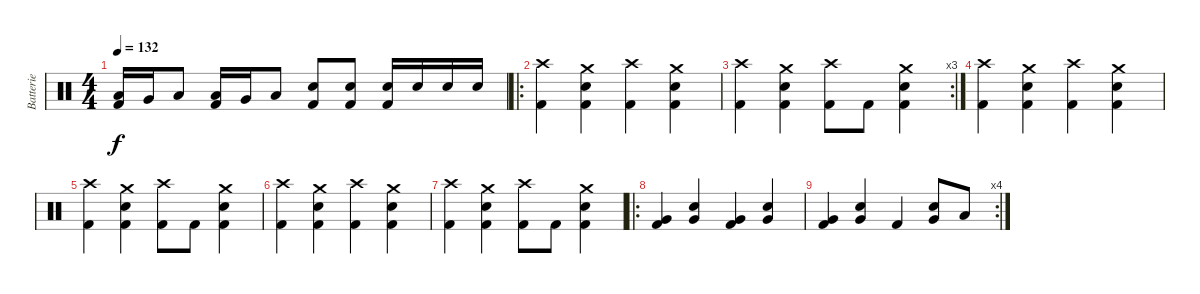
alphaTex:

\track ("Batterie" "Batterie") {instrument percussion}
\staff {score}
\articulation defaults
\ts (4 4)
\tempo 132
\clef neutral
\ks c
("Low Tom (hit)" "Kick (hit) 2").16{dy f} "Very Low Tom (hit)".16 "Low Floor Tom (hit)".8 ("Low Tom (hit)" "Kick (hit) 2").16 "Very Low Tom (hit)".16 "Low Floor Tom (hit)".8 ("Electric Snare (hit)" "Kick (hit) 2").8 ("Electric Snare (hit)" "Kick (hit) 2").8 ("Electric Snare (hit)" "Kick (hit) 2").16 "Electric Snare (hit)".16 "Electric Snare (hit)".16 "Electric Snare (hit)".16 |
\ro
("Crash high (hit)" "Kick (hit) 2").4 ("Crash medium (hit)" "Electric Snare (hit)" "Kick (hit) 2").4 ("Crash high (hit)" "Kick (hit) 2").4 ("Crash medium (hit)" "Electric Snare (hit)" "Kick (hit) 2").4 |
\rc 3
("Crash high (hit)" "Kick (hit) 2").4 ("Crash medium (hit)" "Electric Snare (hit)" "Kick (hit) 2").4 ("Crash high (hit)" "Kick (hit) 2").8 "Kick (hit) 2".8 ("Crash medium (hit)" "Electric Snare (hit)" "Kick (hit) 2").4 |
("Crash high (hit)" "Kick (hit) 2").4 ("Crash medium (hit)" "Electric Snare (hit)" "Kick (hit) 2").4 ("Crash high (hit)" "Kick (hit) 2").4 ("Crash medium (hit)" "Electric Snare (hit)" "Kick (hit) 2").4 |
("Crash high (hit)" "Kick (hit) 2").4 ("Crash medium (hit)" "Electric Snare (hit)" "Kick (hit) 2").4 ("Crash high (hit)" "Kick (hit) 2").8 "Kick (hit) 2".8 ("Crash medium (hit)" "Electric Snare (hit)" "Kick (hit) 2").4 |
("Crash high (hit)" "Kick (hit) 2").4 ("Crash medium (hit)" "Electric Snare (hit)" "Kick (hit) 2").4 ("Crash high (hit)" "Kick (hit) 2").4 ("Crash medium (hit)" "Electric Snare (hit)" "Kick (hit) 2").4 |
("Crash high (hit)" "Kick (hit) 2").4 ("Crash medium (hit)" "Electric Snare (hit)" "Kick (hit) 2").4 ("Crash high (hit)" "Kick (hit) 2").8 "Kick (hit) 2".8 ("Crash medium (hit)" "Electric Snare (hit)" "Kick (hit) 2").4 |
\ro
("Very Low Tom (hit)" "Kick (hit) 2").4 ("Electric Snare (hit)" "Very Low Tom (hit)").4 ("Very Low Tom (hit)" "Kick (hit) 2").4 ("Electric Snare (hit)" "Very Low Tom (hit)").4 |
\rc 4
("Very Low Tom (hit)" "Kick (hit) 2").4 ("Electric Snare (hit)" "Very Low Tom (hit)").4 "Kick (hit) 2".4 ("Electric Snare (hit)" "Very Low Tom (hit)").8 "Low Tom (hit)".8
